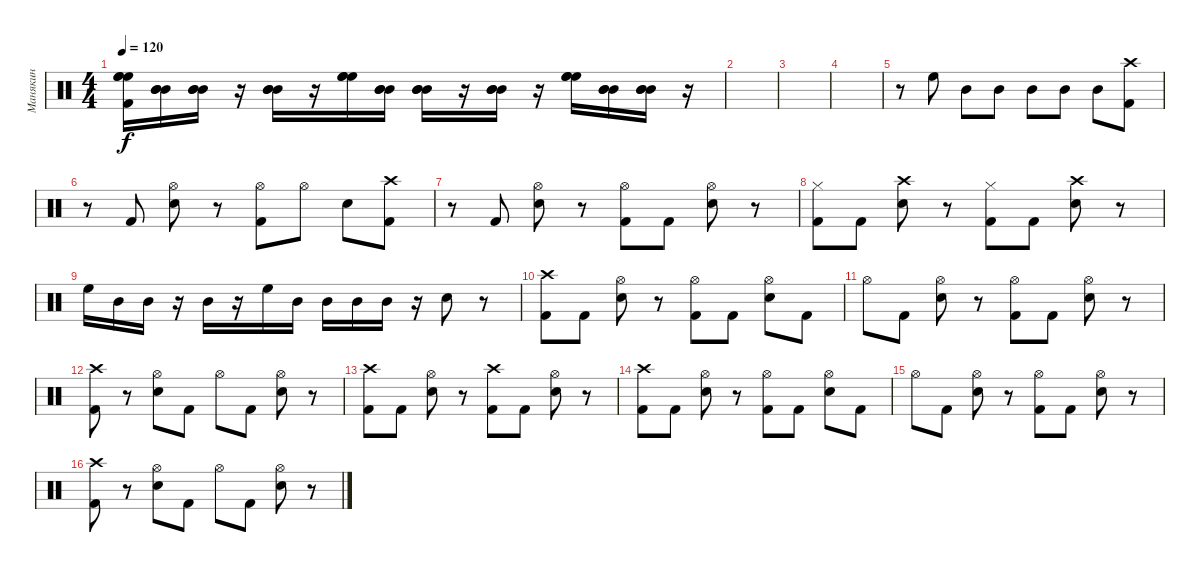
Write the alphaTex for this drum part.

\track ("Манякин" "Манякин") {instrument percussion}
\staff {score}
\articulation defaults
\ts (4 4)
\tempo 120
\clef neutral
\ks c
("High Floor Tom (hit)" "High Floor Tom (hit)" "High Floor Tom (hit)" "Kick (hit) 2").16{dy f} ("Mid Tom (hit)" "Mid Tom (hit)" "Mid Tom (hit)").16 ("Mid Tom (hit)" "Mid Tom (hit)" "Mid Tom (hit)").16 r.16 ("Mid Tom (hit)" "Mid Tom (hit)" "Mid Tom (hit)").16 r.16 ("High Floor Tom (hit)" "High Floor Tom (hit)" "High Floor Tom (hit)").16 ("Mid Tom (hit)" "Mid Tom (hit)" "Mid Tom (hit)").16 ("Mid Tom (hit)" "Mid Tom (hit)" "Mid Tom (hit)").16 r.16 ("Mid Tom (hit)" "Mid Tom (hit)" "Mid Tom (hit)").16 r.16 ("High Floor Tom (hit)" "High Floor Tom (hit)" "High Floor Tom (hit)").16 ("Mid Tom (hit)" "Mid Tom (hit)" "Mid Tom (hit)").16 ("Mid Tom (hit)" "Mid Tom (hit)" "Mid Tom (hit)").16 r.16 |
|
|
|
r.8 "High Floor Tom (hit)".8 "Mid Tom (hit)".8 "Mid Tom (hit)".8 "Mid Tom (hit)".8 "Mid Tom (hit)".8 "Mid Tom (hit)".8 ("Crash high (hit)" "Kick (hit) 2").8 |
r.8 "Kick (hit) 2".8 ("Hi-Hat (open)" "Electric Snare (hit)").8 r.8 ("Hi-Hat (open)" "Kick (hit) 2").8 "Hi-Hat (open)".8 "Electric Snare (hit)".8 ("Crash high (hit)" "Kick (hit) 2").8 |
r.8 "Kick (hit) 2".8 ("Hi-Hat (open)" "Electric Snare (hit)").8 r.8 ("Hi-Hat (open)" "Kick (hit) 2").8 "Kick (hit) 2".8 ("Hi-Hat (open)" "Electric Snare (hit)").8 r.8 |
("Hi-Hat (closed)" "Kick (hit) 2").8 "Kick (hit) 2".8 ("Crash high (hit)" "Electric Snare (hit)").8 r.8 ("Hi-Hat (closed)" "Kick (hit) 2").8 "Kick (hit) 2".8 ("Crash high (hit)" "Electric Snare (hit)").8 r.8 |
"High Floor Tom (hit)".16 "Mid Tom (hit)".16 "Mid Tom (hit)".16 r.16 "Mid Tom (hit)".16 r.16 "High Floor Tom (hit)".16 "Mid Tom (hit)".16 "Mid Tom (hit)".16 "Mid Tom (hit)".16 "Mid Tom (hit)".16 r.16 "Electric Snare (hit)".8 r.8 |
("Crash high (hit)" "Kick (hit) 2").8 "Kick (hit) 2".8 ("Hi-Hat (open)" "Electric Snare (hit)").8 r.8 ("Hi-Hat (open)" "Kick (hit) 2").8 "Kick (hit) 2".8 ("Hi-Hat (open)" "Electric Snare (hit)").8 "Kick (hit) 2".8 |
"Hi-Hat (open)".8 "Kick (hit) 2".8 ("Hi-Hat (open)" "Electric Snare (hit)").8 r.8 ("Hi-Hat (open)" "Kick (hit) 2").8 "Kick (hit) 2".8 ("Hi-Hat (open)" "Electric Snare (hit)").8 r.8 |
("Crash high (hit)" "Kick (hit) 2").8 r.8 ("Hi-Hat (open)" "Electric Snare (hit)").8 "Kick (hit) 2".8 "Hi-Hat (open)".8 "Kick (hit) 2".8 ("Hi-Hat (open)" "Electric Snare (hit)").8 r.8 |
("Crash high (hit)" "Kick (hit) 2").8 "Kick (hit) 2".8 ("Hi-Hat (open)" "Electric Snare (hit)").8 r.8 ("Crash high (hit)" "Kick (hit) 2").8 "Kick (hit) 2".8 ("Hi-Hat (open)" "Electric Snare (hit)").8 r.8 |
("Crash high (hit)" "Kick (hit) 2").8 "Kick (hit) 2".8 ("Hi-Hat (open)" "Electric Snare (hit)").8 r.8 ("Hi-Hat (open)" "Kick (hit) 2").8 "Kick (hit) 2".8 ("Hi-Hat (open)" "Electric Snare (hit)").8 "Kick (hit) 2".8 |
"Hi-Hat (open)".8 "Kick (hit) 2".8 ("Hi-Hat (open)" "Electric Snare (hit)").8 r.8 ("Hi-Hat (open)" "Kick (hit) 2").8 "Kick (hit) 2".8 ("Hi-Hat (open)" "Electric Snare (hit)").8 r.8 |
("Crash high (hit)" "Kick (hit) 2").8 r.8 ("Hi-Hat (open)" "Electric Snare (hit)").8 "Kick (hit) 2".8 "Hi-Hat (open)".8 "Kick (hit) 2".8 ("Hi-Hat (open)" "Electric Snare (hit)").8 r.8
